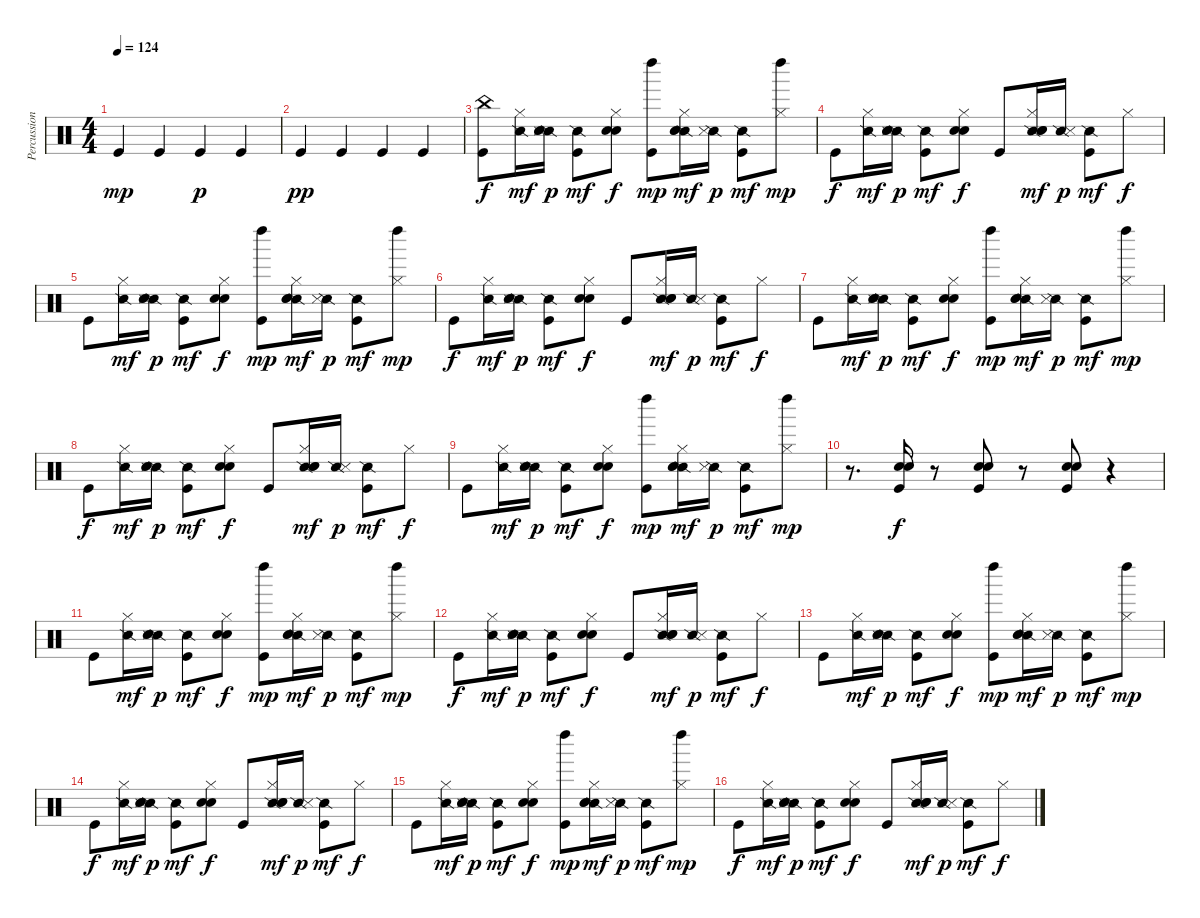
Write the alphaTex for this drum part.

\track ("Percussion" "Percussion") {instrument percussion}
\staff {score}
\articulation defaults
\ts (4 4)
\tempo 124
\clef neutral
\ks c "Kick (hit)".4{dy mp} "Kick (hit)".4 "Kick (hit)".4{dy p} "Kick (hit)".4
|
"Kick (hit)".4{dy pp} "Kick (hit)".4 "Kick (hit)".4 "Kick (hit)".4 |
("China (hit)" "Kick (hit)").8{dy f} ("Snare (side stick) 2" "Hi-Hat (closed)").16{dy mf} ("Snare (side stick) 2" "Snare (side stick) 3" "Snare (hit) 2" "Hand Clap (hit)").16{dy p} ("Snare (side stick) 2" "Kick (hit)").8{dy mf} ("Hi-Hat (closed)" "Snare (hit) 2" "Hand Clap (hit)").8{dy f} ("Left Maraca (hit)" "Kick (hit)").8{dy mp} ("Snare (side stick) 2" "Hi-Hat (closed)" "Snare (hit) 2" "Hand Clap (hit)").16{dy mf} ("Snare (side stick) 2" "Snare (side stick) 3").16{dy p} ("Snare (side stick) 2" "Kick (hit)").8{dy mf} ("Left Maraca (hit)" "Hi-Hat (closed)").8{dy mp} |
"Kick (hit)".8{dy f} ("Snare (side stick) 2" "Hi-Hat (closed)").16{dy mf} ("Snare (side stick) 2" "Snare (side stick) 3" "Snare (hit) 2" "Hand Clap (hit)").16{dy p} ("Snare (side stick) 2" "Kick (hit)").8{dy mf} ("Hi-Hat (closed)" "Snare (hit) 2" "Hand Clap (hit)").8{dy f} "Kick (hit)".8 ("Snare (side stick) 2" "Hi-Hat (closed)" "Snare (hit) 2" "Hand Clap (hit)").16{dy mf} ("Snare (side stick) 2" "Snare (side stick) 3").16{dy p} ("Snare (side stick) 2" "Kick (hit)").8{dy mf} "Hi-Hat (closed)".8{dy f} |
"Kick (hit)".8 ("Snare (side stick) 2" "Hi-Hat (closed)").16{dy mf} ("Snare (side stick) 2" "Snare (side stick) 3" "Snare (hit) 2" "Hand Clap (hit)").16{dy p} ("Snare (side stick) 2" "Kick (hit)").8{dy mf} ("Hi-Hat (closed)" "Snare (hit) 2" "Hand Clap (hit)").8{dy f} ("Left Maraca (hit)" "Kick (hit)").8{dy mp} ("Snare (side stick) 2" "Hi-Hat (closed)" "Snare (hit) 2" "Hand Clap (hit)").16{dy mf} ("Snare (side stick) 2" "Snare (side stick) 3").16{dy p} ("Snare (side stick) 2" "Kick (hit)").8{dy mf} ("Left Maraca (hit)" "Hi-Hat (closed)").8{dy mp} |
"Kick (hit)".8{dy f} ("Snare (side stick) 2" "Hi-Hat (closed)").16{dy mf} ("Snare (side stick) 2" "Snare (side stick) 3" "Snare (hit) 2" "Hand Clap (hit)").16{dy p} ("Snare (side stick) 2" "Kick (hit)").8{dy mf} ("Hi-Hat (closed)" "Snare (hit) 2" "Hand Clap (hit)").8{dy f} "Kick (hit)".8 ("Snare (side stick) 2" "Hi-Hat (closed)" "Snare (hit) 2" "Hand Clap (hit)").16{dy mf} ("Snare (side stick) 2" "Snare (side stick) 3").16{dy p} ("Snare (side stick) 2" "Kick (hit)").8{dy mf} "Hi-Hat (closed)".8{dy f} |
"Kick (hit)".8 ("Snare (side stick) 2" "Hi-Hat (closed)").16{dy mf} ("Snare (side stick) 2" "Snare (side stick) 3" "Snare (hit) 2" "Hand Clap (hit)").16{dy p} ("Snare (side stick) 2" "Kick (hit)").8{dy mf} ("Hi-Hat (closed)" "Snare (hit) 2" "Hand Clap (hit)").8{dy f} ("Left Maraca (hit)" "Kick (hit)").8{dy mp} ("Snare (side stick) 2" "Hi-Hat (closed)" "Snare (hit) 2" "Hand Clap (hit)").16{dy mf} ("Snare (side stick) 2" "Snare (side stick) 3").16{dy p} ("Snare (side stick) 2" "Kick (hit)").8{dy mf} ("Left Maraca (hit)" "Hi-Hat (closed)").8{dy mp} |
"Kick (hit)".8{dy f} ("Snare (side stick) 2" "Hi-Hat (closed)").16{dy mf} ("Snare (side stick) 2" "Snare (side stick) 3" "Snare (hit) 2" "Hand Clap (hit)").16{dy p} ("Snare (side stick) 2" "Kick (hit)").8{dy mf} ("Hi-Hat (closed)" "Snare (hit) 2" "Hand Clap (hit)").8{dy f} "Kick (hit)".8 ("Snare (side stick) 2" "Hi-Hat (closed)" "Snare (hit) 2" "Hand Clap (hit)").16{dy mf} ("Snare (side stick) 2" "Snare (side stick) 3").16{dy p} ("Snare (side stick) 2" "Kick (hit)").8{dy mf} "Hi-Hat (closed)".8{dy f} |
"Kick (hit)".8 ("Snare (side stick) 2" "Hi-Hat (closed)").16{dy mf} ("Snare (side stick) 2" "Snare (side stick) 3" "Snare (hit) 2" "Hand Clap (hit)").16{dy p} ("Snare (side stick) 2" "Kick (hit)").8{dy mf} ("Hi-Hat (closed)" "Snare (hit) 2" "Hand Clap (hit)").8{dy f} ("Left Maraca (hit)" "Kick (hit)").8{dy mp} ("Snare (side stick) 2" "Hi-Hat (closed)" "Snare (hit) 2" "Hand Clap (hit)").16{dy mf} ("Snare (side stick) 2" "Snare (side stick) 3").16{dy p} ("Snare (side stick) 2" "Kick (hit)").8{dy mf} ("Left Maraca (hit)" "Hi-Hat (closed)").8{dy mp} |
r.8{d} ("Snare (hit) 2" "Hand Clap (hit)" "Kick (hit)").16{dy f} r.8 ("Snare (hit) 2" "Hand Clap (hit)" "Kick (hit)").8 r.8 ("Snare (hit) 2" "Hand Clap (hit)" "Kick (hit)").8 r.4 |
"Kick (hit)".8 ("Snare (side stick) 2" "Hi-Hat (closed)").16{dy mf} ("Snare (side stick) 2" "Snare (side stick) 3" "Snare (hit) 2" "Hand Clap (hit)").16{dy p} ("Snare (side stick) 2" "Kick (hit)").8{dy mf} ("Hi-Hat (closed)" "Snare (hit) 2" "Hand Clap (hit)").8{dy f} ("Left Maraca (hit)" "Kick (hit)").8{dy mp} ("Snare (side stick) 2" "Hi-Hat (closed)" "Snare (hit) 2" "Hand Clap (hit)").16{dy mf} ("Snare (side stick) 2" "Snare (side stick) 3").16{dy p} ("Snare (side stick) 2" "Kick (hit)").8{dy mf} ("Left Maraca (hit)" "Hi-Hat (closed)").8{dy mp} |
"Kick (hit)".8{dy f} ("Snare (side stick) 2" "Hi-Hat (closed)").16{dy mf} ("Snare (side stick) 2" "Snare (side stick) 3" "Snare (hit) 2" "Hand Clap (hit)").16{dy p} ("Snare (side stick) 2" "Kick (hit)").8{dy mf} ("Hi-Hat (closed)" "Snare (hit) 2" "Hand Clap (hit)").8{dy f} "Kick (hit)".8 ("Snare (side stick) 2" "Hi-Hat (closed)" "Snare (hit) 2" "Hand Clap (hit)").16{dy mf} ("Snare (side stick) 2" "Snare (side stick) 3").16{dy p} ("Snare (side stick) 2" "Kick (hit)").8{dy mf} "Hi-Hat (closed)".8{dy f} |
"Kick (hit)".8 ("Snare (side stick) 2" "Hi-Hat (closed)").16{dy mf} ("Snare (side stick) 2" "Snare (side stick) 3" "Snare (hit) 2" "Hand Clap (hit)").16{dy p} ("Snare (side stick) 2" "Kick (hit)").8{dy mf} ("Hi-Hat (closed)" "Snare (hit) 2" "Hand Clap (hit)").8{dy f} ("Left Maraca (hit)" "Kick (hit)").8{dy mp} ("Snare (side stick) 2" "Hi-Hat (closed)" "Snare (hit) 2" "Hand Clap (hit)").16{dy mf} ("Snare (side stick) 2" "Snare (side stick) 3").16{dy p} ("Snare (side stick) 2" "Kick (hit)").8{dy mf} ("Left Maraca (hit)" "Hi-Hat (closed)").8{dy mp} |
"Kick (hit)".8{dy f} ("Snare (side stick) 2" "Hi-Hat (closed)").16{dy mf} ("Snare (side stick) 2" "Snare (side stick) 3" "Snare (hit) 2" "Hand Clap (hit)").16{dy p} ("Snare (side stick) 2" "Kick (hit)").8{dy mf} ("Hi-Hat (closed)" "Snare (hit) 2" "Hand Clap (hit)").8{dy f} "Kick (hit)".8 ("Snare (side stick) 2" "Hi-Hat (closed)" "Snare (hit) 2" "Hand Clap (hit)").16{dy mf} ("Snare (side stick) 2" "Snare (side stick) 3").16{dy p} ("Snare (side stick) 2" "Kick (hit)").8{dy mf} "Hi-Hat (closed)".8{dy f} |
"Kick (hit)".8 ("Snare (side stick) 2" "Hi-Hat (closed)").16{dy mf} ("Snare (side stick) 2" "Snare (side stick) 3" "Snare (hit) 2" "Hand Clap (hit)").16{dy p} ("Snare (side stick) 2" "Kick (hit)").8{dy mf} ("Hi-Hat (closed)" "Snare (hit) 2" "Hand Clap (hit)").8{dy f} ("Left Maraca (hit)" "Kick (hit)").8{dy mp} ("Snare (side stick) 2" "Hi-Hat (closed)" "Snare (hit) 2" "Hand Clap (hit)").16{dy mf} ("Snare (side stick) 2" "Snare (side stick) 3").16{dy p} ("Snare (side stick) 2" "Kick (hit)").8{dy mf} ("Left Maraca (hit)" "Hi-Hat (closed)").8{dy mp} |
"Kick (hit)".8{dy f} ("Snare (side stick) 2" "Hi-Hat (closed)").16{dy mf} ("Snare (side stick) 2" "Snare (side stick) 3" "Snare (hit) 2" "Hand Clap (hit)").16{dy p} ("Snare (side stick) 2" "Kick (hit)").8{dy mf} ("Hi-Hat (closed)" "Snare (hit) 2" "Hand Clap (hit)").8{dy f} "Kick (hit)".8 ("Snare (side stick) 2" "Hi-Hat (closed)" "Snare (hit) 2" "Hand Clap (hit)").16{dy mf} ("Snare (side stick) 2" "Snare (side stick) 3").16{dy p} ("Snare (side stick) 2" "Kick (hit)").8{dy mf} "Hi-Hat (closed)".8{dy f}
